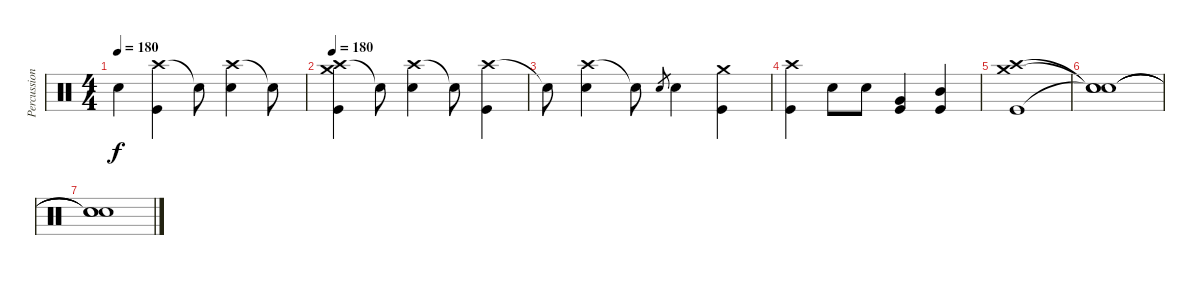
\track ("Percussion" "Percussion") {instrument percussion}
\staff {score}
\articulation defaults
\ts (4 4)
\tempo 180
\clef neutral
\ks c "Snare (hit)"{t}.4{dy f}
("Crash high (hit)" "Kick (hit)").4 "Snare (hit)"{t}.8 ("Crash high (hit)" "Snare (hit) 2").4 "Snare (hit)"{t}.8 |
\tempo 180
("Crash high (hit)" "Crash medium (hit)" "Kick (hit)").4 "Snare (hit)"{t}.8 ("Crash high (hit)" "Snare (hit) 2").4 "Snare (hit)"{t}.8 ("Crash high (hit)" "Kick (hit)").4 |
"Snare (hit)"{t}.8 ("Crash high (hit)" "Snare (hit) 2").4 "Snare (hit)"{t}.8 "Snare (hit) 2".8{gr} "Snare (hit) 2".4 ("Crash medium (hit)" "Kick (hit)").4 |
("Crash high (hit)" "Kick (hit)").4 "Snare (hit) 2".8 "Snare (hit) 2".8 ("Very Low Tom (hit)" "Kick (hit)").4 ("Mid Tom (hit)" "Kick (hit)").4 |
("Crash medium (hit)" "Crash high (hit)" "Kick (hit)").1 |
("Snare (hit)"{t} "Snare (hit)"{t} "Snare (hit)"{t}).1 |
("Snare (hit)"{t} "Snare (hit)"{t} "Snare (hit)"{t}).1
